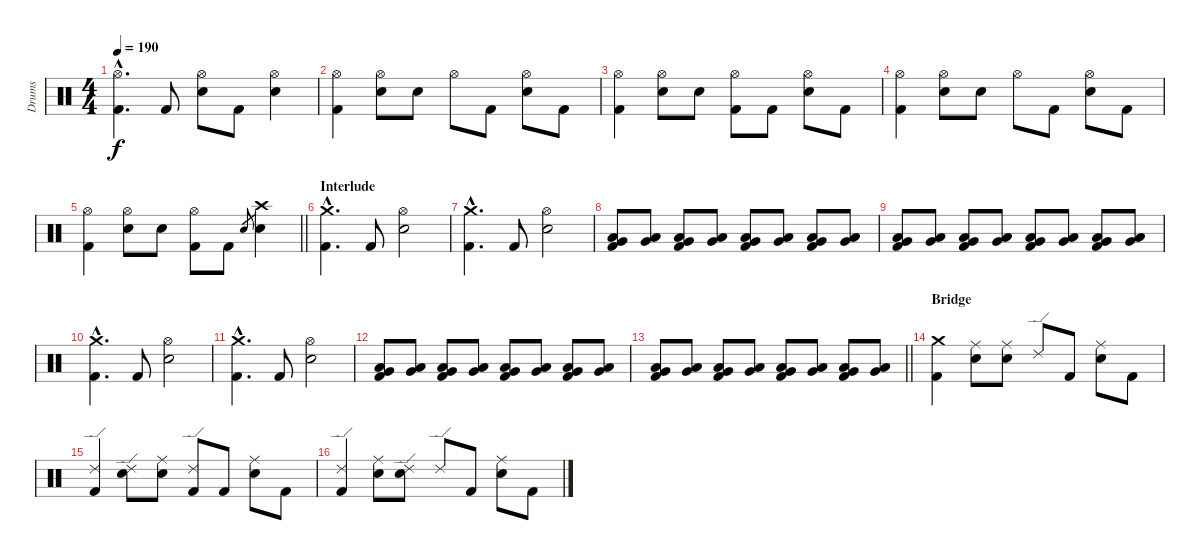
\track ("Drums" "Drums") {instrument percussion}
\staff {score}
\articulation defaults
\ts (4 4)
\tempo 190
\clef neutral
\ks c
("Hi-Hat (open)"{hac} "Kick (hit) 2"{hac}).4{d dy f} "Kick (hit) 2".8 ("Hi-Hat (open)" "Electric Snare (hit)").8 "Kick (hit) 2".8 ("Hi-Hat (open)" "Electric Snare (hit)").4 |
("Hi-Hat (open)" "Kick (hit) 2").4 ("Hi-Hat (open)" "Electric Snare (hit)").8 "Electric Snare (hit)".8 "Hi-Hat (open)".8 "Kick (hit) 2".8 ("Hi-Hat (open)" "Electric Snare (hit)").8 "Kick (hit) 2".8 |
("Hi-Hat (open)" "Kick (hit) 2").4 ("Hi-Hat (open)" "Electric Snare (hit)").8 "Electric Snare (hit)".8 ("Hi-Hat (open)" "Kick (hit) 2").8 "Kick (hit) 2".8 ("Hi-Hat (open)" "Electric Snare (hit)").8 "Kick (hit) 2".8 |
("Hi-Hat (open)" "Kick (hit) 2").4 ("Hi-Hat (open)" "Electric Snare (hit)").8 "Electric Snare (hit)".8 "Hi-Hat (open)".8 "Kick (hit) 2".8 ("Hi-Hat (open)" "Electric Snare (hit)").8 "Kick (hit) 2".8 |
\barLineRight lightlight
("Hi-Hat (open)" "Kick (hit) 2").4 ("Hi-Hat (open)" "Electric Snare (hit)").8 "Electric Snare (hit)".8 ("Hi-Hat (open)" "Kick (hit) 2").8 "Kick (hit) 2".8 "Electric Snare (hit)"{h}.8{gr} ("Crash high (hit)" "Electric Snare (hit)").4 |
\section ("" "Interlude")
("Crash medium (hit)"{hac} "Kick (hit) 2"{hac}).4{d} "Kick (hit) 2".8 ("Hi-Hat (open)" "Electric Snare (hit)").2 |
("Crash medium (hit)"{hac} "Kick (hit) 2"{hac}).4{d} "Kick (hit) 2".8 ("Hi-Hat (open)" "Electric Snare (hit)").2 |
("Very Low Tom (hit)" "Low Tom (hit)" "Kick (hit) 2").8 ("Very Low Tom (hit)" "Low Tom (hit)").8 ("Very Low Tom (hit)" "Low Tom (hit)" "Kick (hit) 2").8 ("Very Low Tom (hit)" "Low Tom (hit)").8 ("Very Low Tom (hit)" "Low Tom (hit)" "Kick (hit) 2").8 ("Very Low Tom (hit)" "Low Tom (hit)").8 ("Very Low Tom (hit)" "Low Tom (hit)" "Kick (hit) 2").8 ("Very Low Tom (hit)" "Low Tom (hit)").8 |
("Very Low Tom (hit)" "Low Tom (hit)" "Kick (hit) 2").8 ("Very Low Tom (hit)" "Low Tom (hit)").8 ("Very Low Tom (hit)" "Low Tom (hit)" "Kick (hit) 2").8 ("Very Low Tom (hit)" "Low Tom (hit)").8 ("Very Low Tom (hit)" "Low Tom (hit)" "Kick (hit) 2").8 ("Very Low Tom (hit)" "Low Tom (hit)").8 ("Very Low Tom (hit)" "Low Tom (hit)" "Kick (hit) 2").8 ("Very Low Tom (hit)" "Low Tom (hit)").8 |
("Crash medium (hit)"{hac} "Kick (hit) 2"{hac}).4{d} "Kick (hit) 2".8 ("Hi-Hat (open)" "Electric Snare (hit)").2 |
("Crash medium (hit)"{hac} "Kick (hit) 2"{hac}).4{d} "Kick (hit) 2".8 ("Hi-Hat (open)" "Electric Snare (hit)").2 |
("Very Low Tom (hit)" "Low Tom (hit)" "Kick (hit) 2").8 ("Very Low Tom (hit)" "Low Tom (hit)").8 ("Very Low Tom (hit)" "Low Tom (hit)" "Kick (hit) 2").8 ("Very Low Tom (hit)" "Low Tom (hit)").8 ("Very Low Tom (hit)" "Low Tom (hit)" "Kick (hit) 2").8 ("Very Low Tom (hit)" "Low Tom (hit)").8 ("Very Low Tom (hit)" "Low Tom (hit)" "Kick (hit) 2").8 ("Very Low Tom (hit)" "Low Tom (hit)").8 |
\barLineRight lightlight
("Very Low Tom (hit)" "Low Tom (hit)" "Kick (hit) 2").8 ("Very Low Tom (hit)" "Low Tom (hit)").8 ("Very Low Tom (hit)" "Low Tom (hit)" "Kick (hit) 2").8 ("Very Low Tom (hit)" "Low Tom (hit)").8 ("Very Low Tom (hit)" "Low Tom (hit)" "Kick (hit) 2").8 ("Very Low Tom (hit)" "Low Tom (hit)").8 ("Very Low Tom (hit)" "Low Tom (hit)" "Kick (hit) 2").8 ("Very Low Tom (hit)" "Low Tom (hit)").8 |
\section ("" "Bridge")
("Crash medium (hit)" "Kick (hit) 2").4 ("Ride (middle)" "Electric Snare (hit)").8 ("Ride (middle)" "Electric Snare (hit)").8 "Ride (edge) 2".8 "Kick (hit) 2".8 ("Ride (middle)" "Electric Snare (hit)").8 "Kick (hit) 2".8 |
("Ride (edge) 2" "Kick (hit) 2").4 ("Ride (edge) 2" "Electric Snare (hit)").8 ("Ride (middle)" "Electric Snare (hit)").8 ("Ride (edge) 2" "Kick (hit) 2").8 "Kick (hit) 2".8 ("Ride (middle)" "Electric Snare (hit)").8 "Kick (hit) 2".8 |
("Ride (edge) 2" "Kick (hit) 2").4 ("Ride (middle)" "Electric Snare (hit)").8 ("Ride (edge) 2" "Electric Snare (hit)").8 "Ride (edge) 2".8 "Kick (hit) 2".8 ("Ride (middle)" "Electric Snare (hit)").8 "Kick (hit) 2".8
